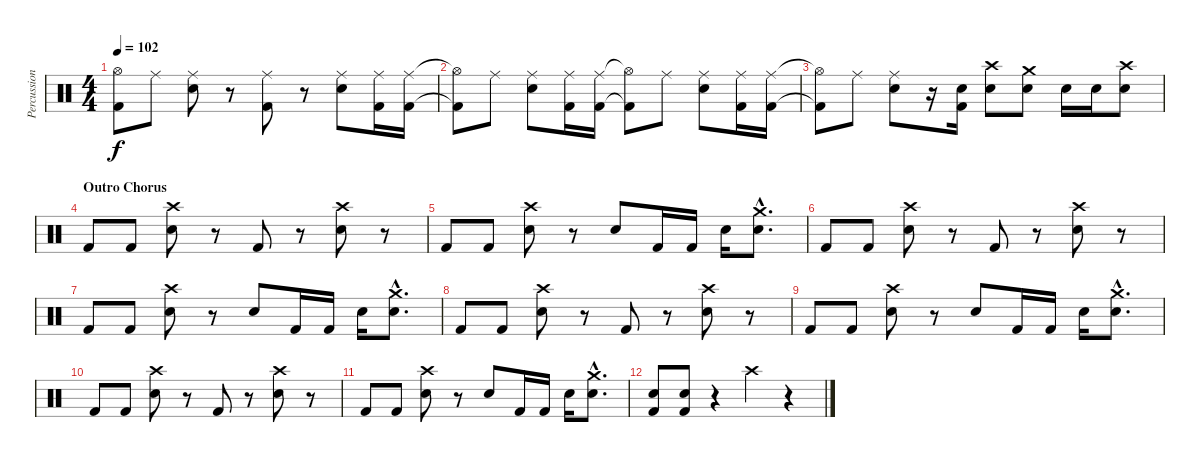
\track ("Percussion" "Percussion") {instrument percussion}
\staff {score}
\articulation defaults
\ts (4 4)
\tempo 102
\clef neutral
\ks c
("Hi-Hat (open)"{t} "Kick (hit) 2"{t}).8{dy f} "Ride (middle)".8 ("Ride (middle)" "Snare (hit) 2").8 r.8 ("Ride (middle)" "Kick (hit) 2").8 r.8 ("Ride (middle)" "Snare (hit) 2").8 ("Ride (middle)" "Kick (hit) 2").16 ("Ride (middle)" "Kick (hit) 2").16 |
("Hi-Hat (open)"{t} "Kick (hit) 2"{t}).8 "Ride (middle)".8 ("Ride (middle)" "Snare (hit) 2").8 ("Ride (middle)" "Kick (hit) 2").16 ("Ride (middle)" "Kick (hit) 2").16 ("Hi-Hat (open)"{t} "Kick (hit) 2"{t}).8 "Ride (middle)".8 ("Ride (middle)" "Snare (hit) 2").8 ("Ride (middle)" "Kick (hit) 2").16 ("Ride (middle)" "Kick (hit) 2").16 |
("Hi-Hat (open)"{t} "Kick (hit) 2"{t}).8 "Ride (middle)".8 ("Ride (middle)" "Snare (hit) 2").8 r.16 ("Snare (hit) 2" "Kick (hit) 2").16 ("Crash high (hit)" "Snare (hit) 2").8 ("Crash medium (hit)" "Snare (hit) 2").8 "Snare (hit) 2".16 "Snare (hit) 2".16 ("Crash high (hit)" "Snare (hit) 2").8 |
\section ("" "Outro Chorus")
"Kick (hit) 2".8 "Kick (hit) 2".8 ("Crash high (hit)" "Snare (hit) 2").8 r.8 "Kick (hit) 2".8 r.8 ("Crash high (hit)" "Snare (hit) 2").8 r.8 |
"Kick (hit) 2".8 "Kick (hit) 2".8 ("Crash high (hit)" "Snare (hit) 2").8 r.8 "Snare (hit) 2".8 "Kick (hit) 2".16 "Kick (hit) 2".16 "Snare (hit) 2".16 ("Crash medium (hit)"{hac} "Snare (hit) 2"{hac}).8{d} |
"Kick (hit) 2".8 "Kick (hit) 2".8 ("Crash high (hit)" "Snare (hit) 2").8 r.8 "Kick (hit) 2".8 r.8 ("Crash high (hit)" "Snare (hit) 2").8 r.8 |
"Kick (hit) 2".8 "Kick (hit) 2".8 ("Crash high (hit)" "Snare (hit) 2").8 r.8 "Snare (hit) 2".8 "Kick (hit) 2".16 "Kick (hit) 2".16 "Snare (hit) 2".16 ("Crash medium (hit)"{hac} "Snare (hit) 2"{hac}).8{d} |
"Kick (hit) 2".8 "Kick (hit) 2".8 ("Crash high (hit)" "Snare (hit) 2").8 r.8 "Kick (hit) 2".8 r.8 ("Crash high (hit)" "Snare (hit) 2").8 r.8 |
"Kick (hit) 2".8 "Kick (hit) 2".8 ("Crash high (hit)" "Snare (hit) 2").8 r.8 "Snare (hit) 2".8 "Kick (hit) 2".16 "Kick (hit) 2".16 "Snare (hit) 2".16 ("Crash medium (hit)"{hac} "Snare (hit) 2"{hac}).8{d} |
"Kick (hit) 2".8 "Kick (hit) 2".8 ("Crash high (hit)" "Snare (hit) 2").8 r.8 "Kick (hit) 2".8 r.8 ("Crash high (hit)" "Snare (hit) 2").8 r.8 |
"Kick (hit) 2".8 "Kick (hit) 2".8 ("Crash high (hit)" "Snare (hit) 2").8 r.8 "Snare (hit) 2".8 "Kick (hit) 2".16 "Kick (hit) 2".16 "Snare (hit) 2".16 ("Crash medium (hit)"{hac} "Snare (hit) 2"{hac}).8{d} |
("Snare (hit) 2" "Kick (hit) 2").8 ("Snare (hit) 2" "Kick (hit) 2").8 r.4 "Crash high (hit)".4 r.4
